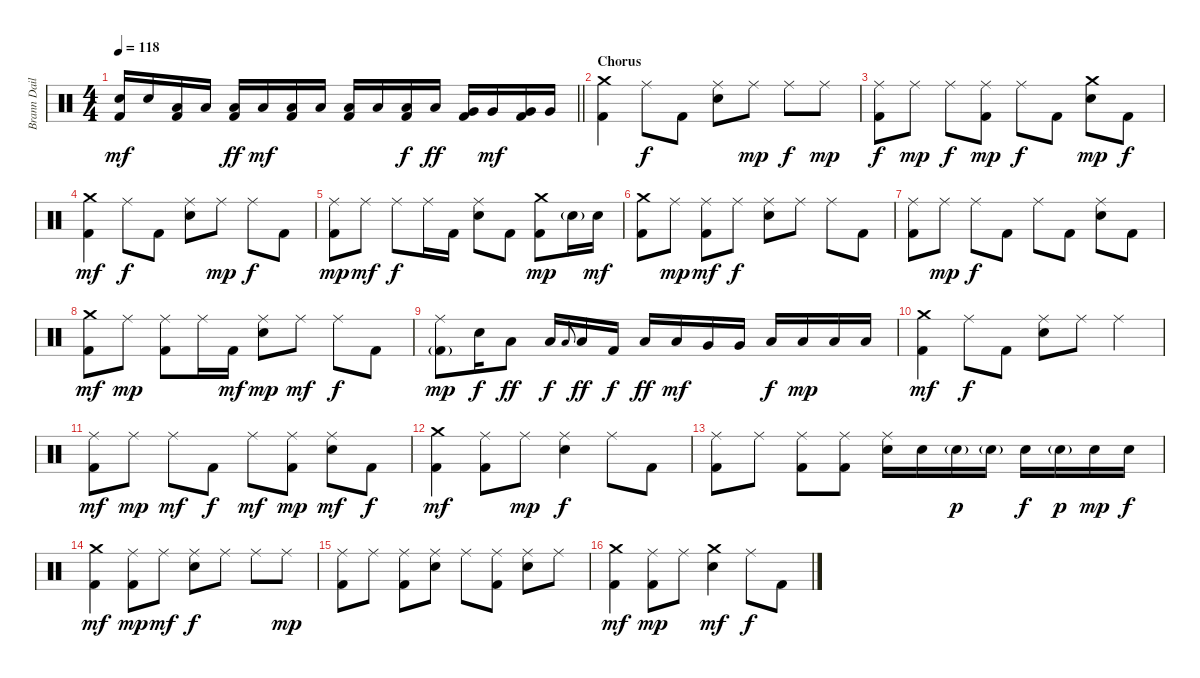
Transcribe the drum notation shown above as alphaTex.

\track ("Brann Dailor - Drums" "Brann Dail") {instrument percussion}
\staff {score}
\articulation defaults
\ts (4 4)
\tempo 118
\clef neutral
\barLineRight lightlight
\ks c
("Electric Snare (hit)" "Kick (hit) 2").16{dy mf} "Electric Snare (hit)".16 ("Low Tom (hit)" "Kick (hit) 2").16 "Low Tom (hit)".16 ("Low Tom (hit)" "Kick (hit) 2").16{dy ff} "Low Tom (hit)".16{dy mf} ("Low Tom (hit)" "Kick (hit) 2").16 "Low Tom (hit)".16 ("Low Tom (hit)" "Kick (hit) 2").16 "Low Tom (hit)".16 ("Low Tom (hit)" "Kick (hit) 2").16{dy f} "Low Tom (hit)".16{dy ff} ("Very Low Tom (hit)" "Kick (hit) 2").16 "Very Low Tom (hit)".16{dy mf} ("Very Low Tom (hit)" "Kick (hit) 2").16 "Very Low Tom (hit)".16 |
\section ("" "Chorus")
("Crash medium (hit)" "Kick (hit) 2").4 "Ride (middle)".8{dy f} "Kick (hit) 2".8 ("Ride (middle)" "Electric Snare (hit)").8 "Ride (middle)".8{dy mp} "Ride (middle)".8{dy f} "Ride (middle)".8{dy mp} |
("Ride (middle)" "Kick (hit) 2").8{dy f} "Ride (middle)".8{dy mp} "Ride (middle)".8{dy f} ("Ride (middle)" "Kick (hit) 2").8{dy mp} "Ride (middle)".8{dy f} "Kick (hit) 2".8 ("Crash medium (hit)" "Electric Snare (hit)").8{dy mp} "Kick (hit) 2".8{dy f} |
("Crash medium (hit)" "Kick (hit) 2").4{dy mf} "Ride (middle)".8{dy f} "Kick (hit) 2".8 ("Ride (middle)" "Electric Snare (hit)").8 "Ride (middle)".8{dy mp} "Ride (middle)".8{dy f} "Kick (hit) 2".8 |
("Ride (middle)" "Kick (hit) 2").8{dy mp} "Ride (middle)".8{dy mf} "Ride (middle)".8{dy f} "Ride (middle)".16 "Kick (hit) 2".16 ("Ride (middle)" "Electric Snare (hit)").8 "Kick (hit) 2".8 ("Crash medium (hit)" "Kick (hit) 2").8{dy mp} "Electric Snare (hit)"{g}.16 "Electric Snare (hit)".16{dy mf} |
("Crash medium (hit)" "Kick (hit) 2").8 "Ride (middle)".8{dy mp} ("Ride (middle)" "Kick (hit) 2").8{dy mf} "Ride (middle)".8{dy f} ("Ride (middle)" "Electric Snare (hit)").8 "Ride (middle)".8 "Ride (middle)".8 "Kick (hit) 2".8 |
("Ride (middle)" "Kick (hit) 2").8 "Ride (middle)".8{dy mp} "Ride (middle)".8{dy f} "Kick (hit) 2".8 "Ride (middle)".8 "Kick (hit) 2".8 ("Ride (middle)" "Electric Snare (hit)").8 "Kick (hit) 2".8 |
("Crash medium (hit)" "Kick (hit) 2").8{dy mf} "Ride (middle)".8{dy mp} ("Ride (middle)" "Kick (hit) 2").8 "Ride (middle)".16 "Kick (hit) 2".16{dy mf} ("Ride (middle)" "Electric Snare (hit)").8{dy mp} "Ride (middle)".8{dy mf} "Ride (middle)".8{dy f} "Kick (hit) 2".8 |
("Ride (middle)" "Kick (hit) 2"{g}).8{dy mp} "Electric Snare (hit)".16{dy f} "Low Tom (hit)".8{dy ff} "Low Floor Tom (hit)".16{dy f} "Low Tom (hit)".8{gr onbeat} "Low Tom (hit)".16{dy ff} "Kick (hit) 2".16{dy f} "Low Tom (hit)".16{dy ff} "Low Tom (hit)".16{dy mf} "Very Low Tom (hit)".16 "Very Low Tom (hit)".16 "Low Tom (hit)".16{dy f} "Low Tom (hit)".16{dy mp} "Low Floor Tom (hit)".16 "Low Floor Tom (hit)".16 |
("Crash medium (hit)" "Kick (hit) 2").4{dy mf} "Ride (middle)".8{dy f} "Kick (hit) 2".8 ("Ride (middle)" "Electric Snare (hit)").8 "Ride (middle)".8 "Ride (middle)".4 |
("Ride (middle)" "Kick (hit) 2").8{dy mf} "Ride (middle)".8{dy mp} "Ride (middle)".8{dy mf} "Kick (hit) 2".8{dy f} "Ride (middle)".8{dy mf} ("Ride (middle)" "Kick (hit) 2").8{dy mp} ("Ride (middle)" "Electric Snare (hit)").8{dy mf} "Kick (hit) 2".8{dy f} |
("Crash medium (hit)" "Kick (hit) 2").4{dy mf} ("Ride (middle)" "Kick (hit) 2").8 "Ride (middle)".8{dy mp} ("Ride (middle)" "Electric Snare (hit)").4{dy f} "Ride (middle)".8 "Kick (hit) 2".8 |
("Ride (middle)" "Kick (hit) 2").8 "Ride (middle)".8 ("Ride (middle)" "Kick (hit) 2").8 ("Ride (middle)" "Kick (hit) 2").8 ("Ride (middle)" "Electric Snare (hit)").16 "Electric Snare (hit)".16 "Electric Snare (hit)"{g}.16{dy p} "Electric Snare (hit)"{g}.16 "Electric Snare (hit)".16{dy f} "Electric Snare (hit)"{g}.16{dy p} "Electric Snare (hit)".16{dy mp} "Electric Snare (hit)".16{dy f} |
("Crash medium (hit)" "Kick (hit) 2").4{dy mf} ("Ride (middle)" "Kick (hit) 2").8{dy mp} "Ride (middle)".8{dy mf} ("Ride (middle)" "Electric Snare (hit)").8{dy f} "Ride (middle)".8 "Ride (middle)".8 "Ride (middle)".8{dy mp} |
("Ride (middle)" "Kick (hit) 2").8 "Ride (middle)".8 ("Ride (middle)" "Kick (hit) 2").8 ("Ride (middle)" "Electric Snare (hit)").8 "Ride (middle)".8 ("Ride (middle)" "Kick (hit) 2").8 ("Ride (middle)" "Electric Snare (hit)").8 "Ride (middle)".8 |
("Crash medium (hit)" "Kick (hit) 2").4{dy mf} ("Ride (middle)" "Kick (hit) 2").8{dy mp} "Ride (middle)".8 ("Crash medium (hit)" "Electric Snare (hit)").4{dy mf} "Ride (middle)".8{dy f} "Kick (hit) 2".8
